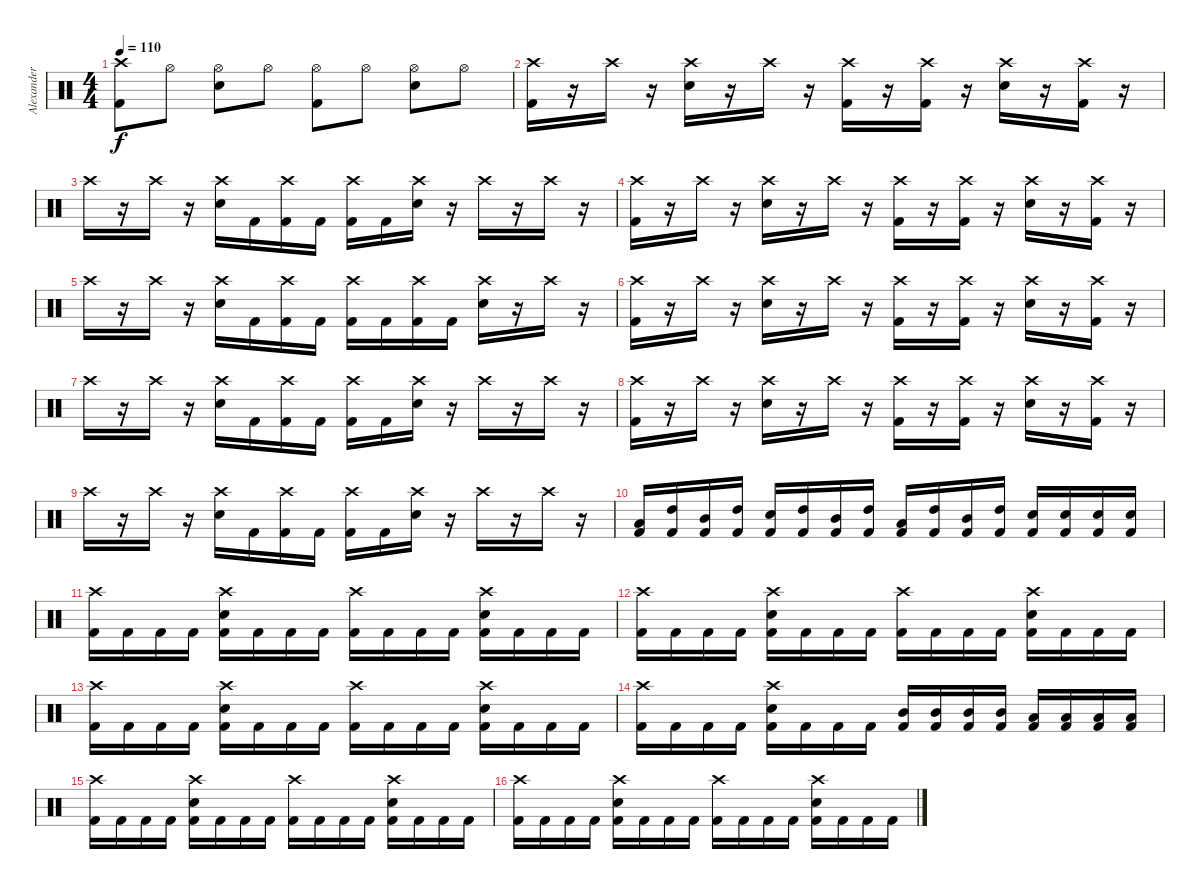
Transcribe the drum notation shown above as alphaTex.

\track ("Alexander C." "Alexander ") {instrument percussion}
\staff {score}
\articulation defaults
\ts (4 4)
\tempo 110
\clef neutral
\ks c
("Crash high (hit)" "Kick (hit) 2").8{dy f} "Hi-Hat (open)".8 ("Hi-Hat (open)" "Snare (hit) 2").8 "Hi-Hat (open)".8 ("Hi-Hat (open)" "Kick (hit) 2").8 "Hi-Hat (open)".8 ("Hi-Hat (open)" "Snare (hit) 2").8 "Hi-Hat (open)".8 |
("Crash high (hit)" "Kick (hit) 2").16 r.16 "Crash high (hit)".16 r.16 ("Crash high (hit)" "Snare (hit) 2").16 r.16 "Crash high (hit)".16 r.16 ("Crash high (hit)" "Kick (hit) 2").16 r.16 ("Crash high (hit)" "Kick (hit) 2").16 r.16 ("Crash high (hit)" "Snare (hit) 2").16 r.16 ("Crash high (hit)" "Kick (hit) 2").16 r.16 |
"Crash high (hit)".16 r.16 "Crash high (hit)".16 r.16 ("Crash high (hit)" "Snare (hit) 2").16 "Kick (hit) 2".16 ("Crash high (hit)" "Kick (hit) 2").16 "Kick (hit) 2".16 ("Crash high (hit)" "Kick (hit) 2").16 "Kick (hit) 2".16 ("Crash high (hit)" "Snare (hit) 2").16 r.16 "Crash high (hit)".16 r.16 "Crash high (hit)".16 r.16 |
("Crash high (hit)" "Kick (hit) 2").16 r.16 "Crash high (hit)".16 r.16 ("Crash high (hit)" "Snare (hit) 2").16 r.16 "Crash high (hit)".16 r.16 ("Crash high (hit)" "Kick (hit) 2").16 r.16 ("Crash high (hit)" "Kick (hit) 2").16 r.16 ("Crash high (hit)" "Snare (hit) 2").16 r.16 ("Crash high (hit)" "Kick (hit) 2").16 r.16 |
"Crash high (hit)".16 r.16 "Crash high (hit)".16 r.16 ("Crash high (hit)" "Snare (hit) 2").16 "Kick (hit) 2".16 ("Crash high (hit)" "Kick (hit) 2").16 "Kick (hit) 2".16 ("Crash high (hit)" "Kick (hit) 2").16 "Kick (hit) 2".16 ("Crash high (hit)" "Kick (hit) 2").16 "Kick (hit) 2".16 ("Crash high (hit)" "Snare (hit) 2").16 r.16 "Crash high (hit)".16 r.16 |
("Crash high (hit)" "Kick (hit) 2").16 r.16 "Crash high (hit)".16 r.16 ("Crash high (hit)" "Snare (hit) 2").16 r.16 "Crash high (hit)".16 r.16 ("Crash high (hit)" "Kick (hit) 2").16 r.16 ("Crash high (hit)" "Kick (hit) 2").16 r.16 ("Crash high (hit)" "Snare (hit) 2").16 r.16 ("Crash high (hit)" "Kick (hit) 2").16 r.16 |
"Crash high (hit)".16 r.16 "Crash high (hit)".16 r.16 ("Crash high (hit)" "Snare (hit) 2").16 "Kick (hit) 2".16 ("Crash high (hit)" "Kick (hit) 2").16 "Kick (hit) 2".16 ("Crash high (hit)" "Kick (hit) 2").16 "Kick (hit) 2".16 ("Crash high (hit)" "Snare (hit) 2").16 r.16 "Crash high (hit)".16 r.16 "Crash high (hit)".16 r.16 |
("Crash high (hit)" "Kick (hit) 2").16 r.16 "Crash high (hit)".16 r.16 ("Crash high (hit)" "Snare (hit) 2").16 r.16 "Crash high (hit)".16 r.16 ("Crash high (hit)" "Kick (hit) 2").16 r.16 ("Crash high (hit)" "Kick (hit) 2").16 r.16 ("Crash high (hit)" "Snare (hit) 2").16 r.16 ("Crash high (hit)" "Kick (hit) 2").16 r.16 |
"Crash high (hit)".16 r.16 "Crash high (hit)".16 r.16 ("Crash high (hit)" "Snare (hit) 2").16 "Kick (hit) 2".16 ("Crash high (hit)" "Kick (hit) 2").16 "Kick (hit) 2".16 ("Crash high (hit)" "Kick (hit) 2").16 "Kick (hit) 2".16 ("Crash high (hit)" "Snare (hit) 2").16 r.16 "Crash high (hit)".16 r.16 "Crash high (hit)".16 r.16 |
("Low Tom (hit)" "Kick (hit) 2").16 ("High Tom (hit)" "Kick (hit) 2").16 ("Mid Tom (hit)" "Kick (hit) 2").16 ("High Tom (hit)" "Kick (hit) 2").16 ("Snare (hit) 2" "Kick (hit) 2").16 ("High Tom (hit)" "Kick (hit) 2").16 ("Mid Tom (hit)" "Kick (hit) 2").16 ("High Tom (hit)" "Kick (hit) 2").16 ("Low Tom (hit)" "Kick (hit) 2").16 ("High Tom (hit)" "Kick (hit) 2").16 ("Mid Tom (hit)" "Kick (hit) 2").16 ("High Tom (hit)" "Kick (hit) 2").16 ("Snare (hit) 2" "Kick (hit) 2").16 ("Snare (hit) 2" "Kick (hit) 2").16 ("Snare (hit) 2" "Kick (hit) 2").16 ("Snare (hit) 2" "Kick (hit) 2").16 |
("Crash high (hit)" "Kick (hit) 2").16 "Kick (hit) 2".16 "Kick (hit) 2".16 "Kick (hit) 2".16 ("Crash high (hit)" "Snare (hit) 2" "Kick (hit) 2").16 "Kick (hit) 2".16 "Kick (hit) 2".16 "Kick (hit) 2".16 ("Crash high (hit)" "Kick (hit) 2").16 "Kick (hit) 2".16 "Kick (hit) 2".16 "Kick (hit) 2".16 ("Crash high (hit)" "Snare (hit) 2" "Kick (hit) 2").16 "Kick (hit) 2".16 "Kick (hit) 2".16 "Kick (hit) 2".16 |
("Crash high (hit)" "Kick (hit) 2").16 "Kick (hit) 2".16 "Kick (hit) 2".16 "Kick (hit) 2".16 ("Crash high (hit)" "Snare (hit) 2" "Kick (hit) 2").16 "Kick (hit) 2".16 "Kick (hit) 2".16 "Kick (hit) 2".16 ("Crash high (hit)" "Kick (hit) 2").16 "Kick (hit) 2".16 "Kick (hit) 2".16 "Kick (hit) 2".16 ("Crash high (hit)" "Snare (hit) 2" "Kick (hit) 2").16 "Kick (hit) 2".16 "Kick (hit) 2".16 "Kick (hit) 2".16 |
("Crash high (hit)" "Kick (hit) 2").16 "Kick (hit) 2".16 "Kick (hit) 2".16 "Kick (hit) 2".16 ("Crash high (hit)" "Snare (hit) 2" "Kick (hit) 2").16 "Kick (hit) 2".16 "Kick (hit) 2".16 "Kick (hit) 2".16 ("Crash high (hit)" "Kick (hit) 2").16 "Kick (hit) 2".16 "Kick (hit) 2".16 "Kick (hit) 2".16 ("Crash high (hit)" "Snare (hit) 2" "Kick (hit) 2").16 "Kick (hit) 2".16 "Kick (hit) 2".16 "Kick (hit) 2".16 |
("Crash high (hit)" "Kick (hit) 2").16 "Kick (hit) 2".16 "Kick (hit) 2".16 "Kick (hit) 2".16 ("Crash high (hit)" "Snare (hit) 2" "Kick (hit) 2").16 "Kick (hit) 2".16 "Kick (hit) 2".16 "Kick (hit) 2".16 ("Mid Tom (hit)" "Kick (hit) 2").16 ("Mid Tom (hit)" "Kick (hit) 2").16 ("Mid Tom (hit)" "Kick (hit) 2").16 ("Mid Tom (hit)" "Kick (hit) 2").16 ("Low Tom (hit)" "Kick (hit) 2").16 ("Low Tom (hit)" "Kick (hit) 2").16 ("Low Tom (hit)" "Kick (hit) 2").16 ("Low Tom (hit)" "Kick (hit) 2").16 |
("Crash high (hit)" "Kick (hit) 2").16 "Kick (hit) 2".16 "Kick (hit) 2".16 "Kick (hit) 2".16 ("Crash high (hit)" "Snare (hit) 2" "Kick (hit) 2").16 "Kick (hit) 2".16 "Kick (hit) 2".16 "Kick (hit) 2".16 ("Crash high (hit)" "Kick (hit) 2").16 "Kick (hit) 2".16 "Kick (hit) 2".16 "Kick (hit) 2".16 ("Crash high (hit)" "Snare (hit) 2" "Kick (hit) 2").16 "Kick (hit) 2".16 "Kick (hit) 2".16 "Kick (hit) 2".16 |
("Crash high (hit)" "Kick (hit) 2").16 "Kick (hit) 2".16 "Kick (hit) 2".16 "Kick (hit) 2".16 ("Crash high (hit)" "Snare (hit) 2" "Kick (hit) 2").16 "Kick (hit) 2".16 "Kick (hit) 2".16 "Kick (hit) 2".16 ("Crash high (hit)" "Kick (hit) 2").16 "Kick (hit) 2".16 "Kick (hit) 2".16 "Kick (hit) 2".16 ("Crash high (hit)" "Snare (hit) 2" "Kick (hit) 2").16 "Kick (hit) 2".16 "Kick (hit) 2".16 "Kick (hit) 2".16
